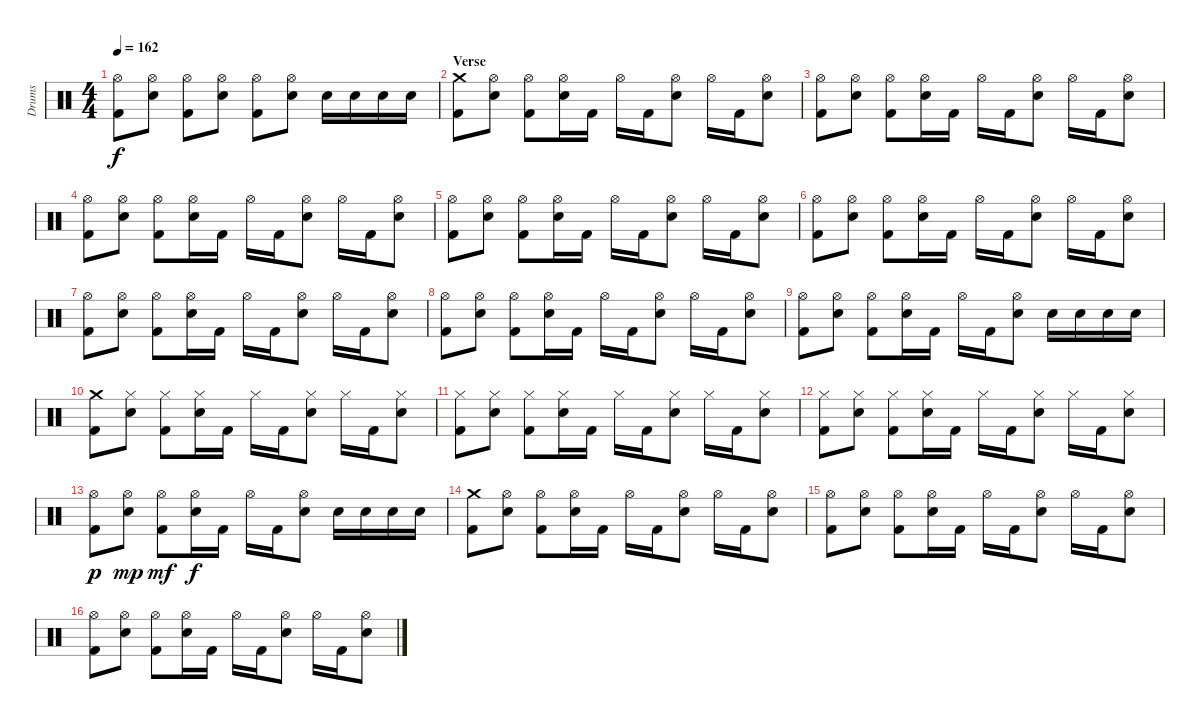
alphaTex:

\track ("Drums" "Drums") {instrument percussion}
\staff {score}
\articulation defaults
\ts (4 4)
\tempo 162
\clef neutral
\ks c
("Kick (hit) 2" "Hi-Hat (open)").8{dy f} ("Electric Snare (hit)" "Hi-Hat (open)").8 ("Kick (hit) 2" "Hi-Hat (open)").8 ("Electric Snare (hit)" "Hi-Hat (open)").8 ("Kick (hit) 2" "Hi-Hat (open)").8 ("Electric Snare (hit)" "Hi-Hat (open)").8 "Electric Snare (hit)".16 "Electric Snare (hit)".16 "Electric Snare (hit)".16 "Electric Snare (hit)".16 |
\section ("" "Verse")
("Kick (hit) 2" "Crash medium (hit)").8 ("Electric Snare (hit)" "Hi-Hat (open)").8 ("Kick (hit) 2" "Hi-Hat (open)").8 ("Electric Snare (hit)" "Hi-Hat (open)").16 "Kick (hit) 2".16 "Hi-Hat (open)".16 "Kick (hit) 2".16 ("Electric Snare (hit)" "Hi-Hat (open)").8 "Hi-Hat (open)".16 "Kick (hit) 2".16 ("Electric Snare (hit)" "Hi-Hat (open)").8 |
("Kick (hit) 2" "Hi-Hat (open)").8 ("Electric Snare (hit)" "Hi-Hat (open)").8 ("Kick (hit) 2" "Hi-Hat (open)").8 ("Electric Snare (hit)" "Hi-Hat (open)").16 "Kick (hit) 2".16 "Hi-Hat (open)".16 "Kick (hit) 2".16 ("Electric Snare (hit)" "Hi-Hat (open)").8 "Hi-Hat (open)".16 "Kick (hit) 2".16 ("Electric Snare (hit)" "Hi-Hat (open)").8 |
("Kick (hit) 2" "Hi-Hat (open)").8 ("Electric Snare (hit)" "Hi-Hat (open)").8 ("Kick (hit) 2" "Hi-Hat (open)").8 ("Electric Snare (hit)" "Hi-Hat (open)").16 "Kick (hit) 2".16 "Hi-Hat (open)".16 "Kick (hit) 2".16 ("Electric Snare (hit)" "Hi-Hat (open)").8 "Hi-Hat (open)".16 "Kick (hit) 2".16 ("Electric Snare (hit)" "Hi-Hat (open)").8 |
("Kick (hit) 2" "Hi-Hat (open)").8 ("Electric Snare (hit)" "Hi-Hat (open)").8 ("Kick (hit) 2" "Hi-Hat (open)").8 ("Electric Snare (hit)" "Hi-Hat (open)").16 "Kick (hit) 2".16 "Hi-Hat (open)".16 "Kick (hit) 2".16 ("Electric Snare (hit)" "Hi-Hat (open)").8 "Hi-Hat (open)".16 "Kick (hit) 2".16 ("Electric Snare (hit)" "Hi-Hat (open)").8 |
("Kick (hit) 2" "Hi-Hat (open)").8 ("Electric Snare (hit)" "Hi-Hat (open)").8 ("Kick (hit) 2" "Hi-Hat (open)").8 ("Electric Snare (hit)" "Hi-Hat (open)").16 "Kick (hit) 2".16 "Hi-Hat (open)".16 "Kick (hit) 2".16 ("Electric Snare (hit)" "Hi-Hat (open)").8 "Hi-Hat (open)".16 "Kick (hit) 2".16 ("Electric Snare (hit)" "Hi-Hat (open)").8 |
("Kick (hit) 2" "Hi-Hat (open)").8 ("Electric Snare (hit)" "Hi-Hat (open)").8 ("Kick (hit) 2" "Hi-Hat (open)").8 ("Electric Snare (hit)" "Hi-Hat (open)").16 "Kick (hit) 2".16 "Hi-Hat (open)".16 "Kick (hit) 2".16 ("Electric Snare (hit)" "Hi-Hat (open)").8 "Hi-Hat (open)".16 "Kick (hit) 2".16 ("Electric Snare (hit)" "Hi-Hat (open)").8 |
("Kick (hit) 2" "Hi-Hat (open)").8 ("Electric Snare (hit)" "Hi-Hat (open)").8 ("Kick (hit) 2" "Hi-Hat (open)").8 ("Electric Snare (hit)" "Hi-Hat (open)").16 "Kick (hit) 2".16 "Hi-Hat (open)".16 "Kick (hit) 2".16 ("Electric Snare (hit)" "Hi-Hat (open)").8 "Hi-Hat (open)".16 "Kick (hit) 2".16 ("Electric Snare (hit)" "Hi-Hat (open)").8 |
("Kick (hit) 2" "Hi-Hat (open)").8 ("Electric Snare (hit)" "Hi-Hat (open)").8 ("Kick (hit) 2" "Hi-Hat (open)").8 ("Electric Snare (hit)" "Hi-Hat (open)").16 "Kick (hit) 2".16 "Hi-Hat (open)".16 "Kick (hit) 2".16 ("Electric Snare (hit)" "Hi-Hat (open)").8 "Electric Snare (hit)".16 "Electric Snare (hit)".16 "Electric Snare (hit)".16 "Electric Snare (hit)".16 |
\section ("" "")
("Kick (hit) 2" "Crash medium (hit)").8 ("Electric Snare (hit)" "Hi-Hat (closed)").8 ("Kick (hit) 2" "Hi-Hat (closed)").8 ("Electric Snare (hit)" "Hi-Hat (closed)").16 "Kick (hit) 2".16 "Hi-Hat (closed)".16 "Kick (hit) 2".16 ("Electric Snare (hit)" "Hi-Hat (closed)").8 "Hi-Hat (closed)".16 "Kick (hit) 2".16 ("Electric Snare (hit)" "Hi-Hat (closed)").8 |
("Kick (hit) 2" "Hi-Hat (closed)").8 ("Electric Snare (hit)" "Hi-Hat (closed)").8 ("Kick (hit) 2" "Hi-Hat (closed)").8 ("Electric Snare (hit)" "Hi-Hat (closed)").16 "Kick (hit) 2".16 "Hi-Hat (closed)".16 "Kick (hit) 2".16 ("Electric Snare (hit)" "Hi-Hat (closed)").8 "Hi-Hat (closed)".16 "Kick (hit) 2".16 ("Electric Snare (hit)" "Hi-Hat (closed)").8 |
("Kick (hit) 2" "Hi-Hat (closed)").8 ("Electric Snare (hit)" "Hi-Hat (closed)").8 ("Kick (hit) 2" "Hi-Hat (closed)").8 ("Electric Snare (hit)" "Hi-Hat (closed)").16 "Kick (hit) 2".16 "Hi-Hat (closed)".16 "Kick (hit) 2".16 ("Electric Snare (hit)" "Hi-Hat (closed)").8 "Hi-Hat (closed)".16 "Kick (hit) 2".16 ("Electric Snare (hit)" "Hi-Hat (closed)").8 |
("Kick (hit) 2" "Hi-Hat (open)").8{dy p} ("Electric Snare (hit)" "Hi-Hat (open)").8{dy mp} ("Kick (hit) 2" "Hi-Hat (open)").8{dy mf} ("Electric Snare (hit)" "Hi-Hat (open)").16{dy f} "Kick (hit) 2".16 "Hi-Hat (open)".16 "Kick (hit) 2".16 ("Electric Snare (hit)" "Hi-Hat (open)").8 "Electric Snare (hit)".16 "Electric Snare (hit)".16 "Electric Snare (hit)".16 "Electric Snare (hit)".16 |
\section ("" "")
("Kick (hit) 2" "Crash medium (hit)").8 ("Electric Snare (hit)" "Hi-Hat (open)").8 ("Kick (hit) 2" "Hi-Hat (open)").8 ("Electric Snare (hit)" "Hi-Hat (open)").16 "Kick (hit) 2".16 "Hi-Hat (open)".16 "Kick (hit) 2".16 ("Electric Snare (hit)" "Hi-Hat (open)").8 "Hi-Hat (open)".16 "Kick (hit) 2".16 ("Electric Snare (hit)" "Hi-Hat (open)").8 |
("Kick (hit) 2" "Hi-Hat (open)").8 ("Electric Snare (hit)" "Hi-Hat (open)").8 ("Kick (hit) 2" "Hi-Hat (open)").8 ("Electric Snare (hit)" "Hi-Hat (open)").16 "Kick (hit) 2".16 "Hi-Hat (open)".16 "Kick (hit) 2".16 ("Electric Snare (hit)" "Hi-Hat (open)").8 "Hi-Hat (open)".16 "Kick (hit) 2".16 ("Electric Snare (hit)" "Hi-Hat (open)").8 |
("Kick (hit) 2" "Hi-Hat (open)").8 ("Electric Snare (hit)" "Hi-Hat (open)").8 ("Kick (hit) 2" "Hi-Hat (open)").8 ("Electric Snare (hit)" "Hi-Hat (open)").16 "Kick (hit) 2".16 "Hi-Hat (open)".16 "Kick (hit) 2".16 ("Electric Snare (hit)" "Hi-Hat (open)").8 "Hi-Hat (open)".16 "Kick (hit) 2".16 ("Electric Snare (hit)" "Hi-Hat (open)").8
